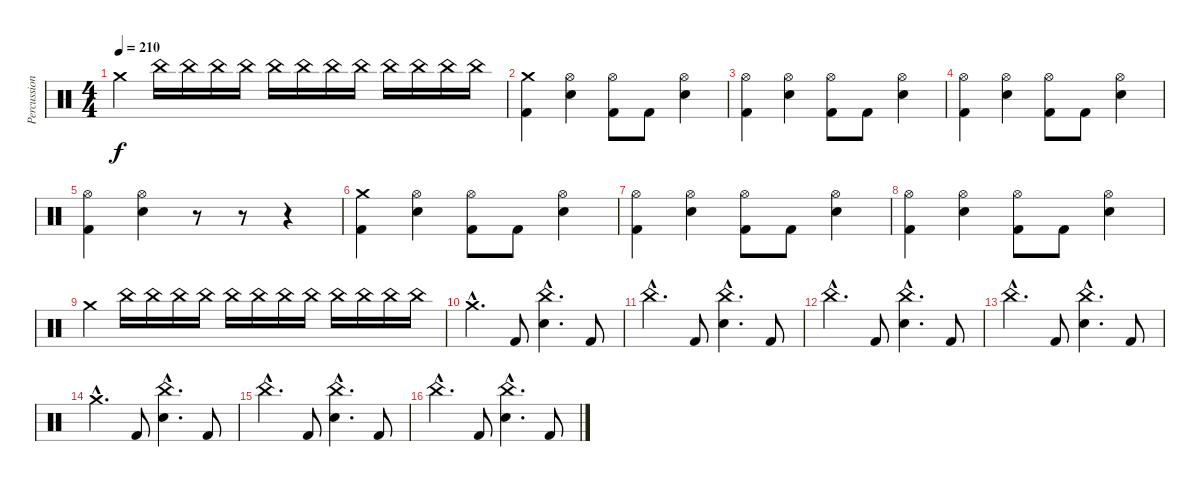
\track ("Percussion" "Percussion") {instrument percussion}
\staff {score}
\articulation defaults
\ts (4 4)
\tempo 210
\clef neutral
\ks c "Crash medium (hit)".4{dy f} "China (hit)".16{volume 0} "China (hit)".16{volume 13} "China (hit)".16 "China (hit)".16 "China (hit)".16 "China (hit)".16 "China (hit)".16 "China (hit)".16 "China (hit)".16 "China (hit)".16 "China (hit)".16 "China (hit)".16
|
("Crash medium (hit)" "Kick (hit) 2").4 ("Hi-Hat (open)" "Electric Snare (hit)").4 ("Hi-Hat (open)" "Kick (hit) 2").8 "Kick (hit) 2".8 ("Hi-Hat (open)" "Electric Snare (hit)").4 |
("Hi-Hat (open)" "Kick (hit) 2").4 ("Hi-Hat (open)" "Electric Snare (hit)").4 ("Hi-Hat (open)" "Kick (hit) 2").8 "Kick (hit) 2".8 ("Hi-Hat (open)" "Electric Snare (hit)").4 |
("Hi-Hat (open)" "Kick (hit) 2").4 ("Hi-Hat (open)" "Electric Snare (hit)").4 ("Hi-Hat (open)" "Kick (hit) 2").8 "Kick (hit) 2".8 ("Hi-Hat (open)" "Electric Snare (hit)").4 |
("Hi-Hat (open)" "Kick (hit) 2").4 ("Hi-Hat (open)" "Electric Snare (hit)").4 r.8 r.8 r.4 |
("Crash medium (hit)" "Kick (hit) 2").4 ("Hi-Hat (open)" "Electric Snare (hit)").4 ("Hi-Hat (open)" "Kick (hit) 2").8 "Kick (hit) 2".8 ("Hi-Hat (open)" "Electric Snare (hit)").4 |
("Hi-Hat (open)" "Kick (hit) 2").4 ("Hi-Hat (open)" "Electric Snare (hit)").4 ("Hi-Hat (open)" "Kick (hit) 2").8 "Kick (hit) 2".8 ("Hi-Hat (open)" "Electric Snare (hit)").4 |
("Hi-Hat (open)" "Kick (hit) 2").4 ("Hi-Hat (open)" "Electric Snare (hit)").4 ("Hi-Hat (open)" "Kick (hit) 2").8 "Kick (hit) 2".8 ("Hi-Hat (open)" "Electric Snare (hit)").4 |
"Crash medium (hit)".4 "China (hit)".16{volume 0} "China (hit)".16{volume 13} "China (hit)".16 "China (hit)".16 "China (hit)".16 "China (hit)".16 "China (hit)".16 "China (hit)".16 "China (hit)".16 "China (hit)".16 "China (hit)".16 "China (hit)".16 |
"Crash medium (hit)"{hac}.4{d} "Kick (hit) 2".8 ("China (hit)"{hac} "Electric Snare (hit)"{hac}).4{d} "Kick (hit) 2".8 |
"China (hit)"{hac}.4{d} "Kick (hit) 2".8 ("China (hit)"{hac} "Electric Snare (hit)"{hac}).4{d} "Kick (hit) 2".8 |
"China (hit)"{hac}.4{d} "Kick (hit) 2".8 ("China (hit)"{hac} "Electric Snare (hit)"{hac}).4{d} "Kick (hit) 2".8 |
"China (hit)"{hac}.4{d} "Kick (hit) 2".8 ("China (hit)"{hac} "Electric Snare (hit)"{hac}).4{d} "Kick (hit) 2".8 |
"Crash medium (hit)"{hac}.4{d} "Kick (hit) 2".8 ("China (hit)"{hac} "Electric Snare (hit)"{hac}).4{d} "Kick (hit) 2".8 |
"China (hit)"{hac}.4{d} "Kick (hit) 2".8 ("China (hit)"{hac} "Electric Snare (hit)"{hac}).4{d} "Kick (hit) 2".8 |
"China (hit)"{hac}.4{d} "Kick (hit) 2".8 ("China (hit)"{hac} "Electric Snare (hit)"{hac}).4{d} "Kick (hit) 2".8
